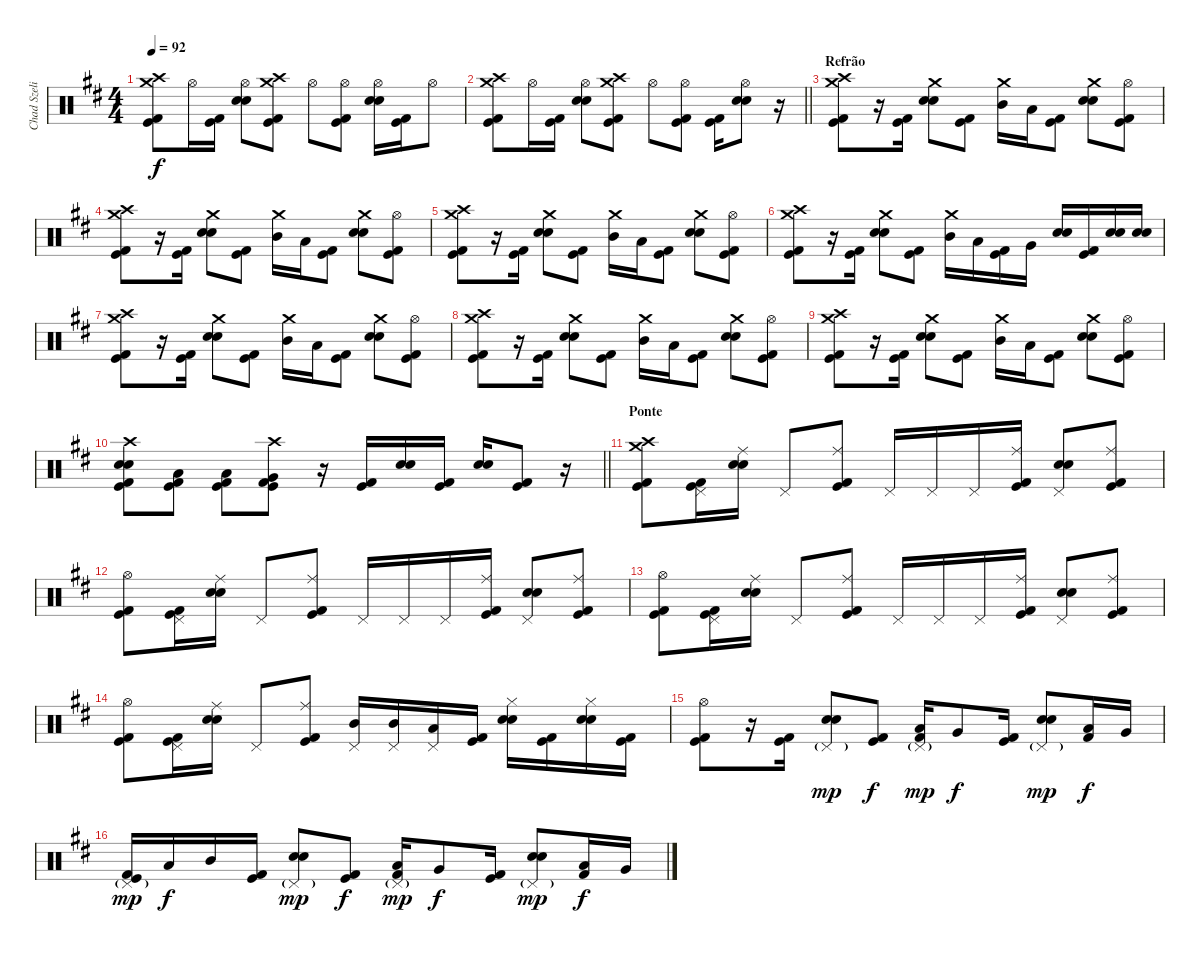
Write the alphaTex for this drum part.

\track ("Chad Szeliga" "Chad Szeli") {instrument percussion}
\staff {score}
\articulation defaults
\ts (4 4)
\tempo 92
\clef neutral
\ks d
("Crash high (hit)" "Kick (hit) 2" "Kick (hit)" "Crash medium (hit)").8{dy f} "Hi-Hat (open)".16 ("Kick (hit) 2" "Kick (hit)").16 ("Snare (hit) 2" "Snare (hit) 2" "Hi-Hat (open)").8 ("Crash high (hit)" "Kick (hit) 2" "Kick (hit)" "Crash medium (hit)").8 "Hi-Hat (open)".8 ("Kick (hit) 2" "Kick (hit)" "Hi-Hat (open)").8 ("Snare (hit) 2" "Snare (hit) 2" "Hi-Hat (open)").16 ("Kick (hit) 2" "Kick (hit)").16 "Hi-Hat (open)".8 |
\barLineRight lightlight
("Crash high (hit)" "Kick (hit) 2" "Kick (hit)" "Crash medium (hit)").8 "Hi-Hat (open)".16 ("Kick (hit) 2" "Kick (hit)").16 ("Snare (hit) 2" "Snare (hit) 2" "Hi-Hat (open)").8 ("Crash high (hit)" "Kick (hit) 2" "Kick (hit)" "Crash medium (hit)").8 "Hi-Hat (open)".8 ("Kick (hit) 2" "Kick (hit)" "Hi-Hat (open)").8 ("Kick (hit) 2" "Kick (hit)").16 ("Snare (hit) 2" "Snare (hit) 2" "Hi-Hat (open)").8 r.16 |
\section ("" "Refrão")
("Crash high (hit)" "Kick (hit) 2" "Kick (hit)" "Crash medium (hit)").8 r.16 ("Kick (hit) 2" "Kick (hit)").16{beam Down} ("Crash medium (hit)" "Snare (hit) 2" "Snare (hit) 2").8 ("Kick (hit) 2" "Kick (hit)").8 ("Crash medium (hit)" "Mid Tom (hit)").16 "Low Tom (hit)".16 ("Kick (hit) 2" "Kick (hit)").8 ("Crash medium (hit)" "Snare (hit) 2" "Snare (hit) 2").8 ("Kick (hit) 2" "Kick (hit)" "Hi-Hat (open)").8 |
("Crash high (hit)" "Kick (hit) 2" "Kick (hit)" "Crash medium (hit)").8 r.16 ("Kick (hit) 2" "Kick (hit)").16{beam Down} ("Crash medium (hit)" "Snare (hit) 2" "Snare (hit) 2").8 ("Kick (hit) 2" "Kick (hit)").8 ("Crash medium (hit)" "Mid Tom (hit)").16 "Low Tom (hit)".16 ("Kick (hit) 2" "Kick (hit)").8 ("Crash medium (hit)" "Snare (hit) 2" "Snare (hit) 2").8 ("Kick (hit) 2" "Kick (hit)" "Hi-Hat (open)").8 |
("Crash high (hit)" "Kick (hit) 2" "Kick (hit)" "Crash medium (hit)").8 r.16 ("Kick (hit) 2" "Kick (hit)").16{beam Down} ("Crash medium (hit)" "Snare (hit) 2" "Snare (hit) 2").8 ("Kick (hit) 2" "Kick (hit)").8 ("Crash medium (hit)" "Mid Tom (hit)").16 "Low Tom (hit)".16 ("Kick (hit) 2" "Kick (hit)").8 ("Crash medium (hit)" "Snare (hit) 2" "Snare (hit) 2").8 ("Kick (hit) 2" "Kick (hit)" "Hi-Hat (open)").8 |
("Crash high (hit)" "Kick (hit) 2" "Kick (hit)" "Crash medium (hit)").8 r.16 ("Kick (hit) 2" "Kick (hit)").16{beam Down} ("Crash medium (hit)" "Snare (hit) 2" "Snare (hit) 2").8 ("Kick (hit) 2" "Kick (hit)").8 ("Crash medium (hit)" "Mid Tom (hit)").16 "Low Tom (hit)".16 ("Kick (hit) 2" "Kick (hit)").16 "Very Low Tom (hit)".16 ("Snare (hit) 2" "Snare (hit) 2").16 ("Kick (hit) 2" "Kick (hit)").16 ("Snare (hit) 2" "Snare (hit) 2").16 ("Snare (hit) 2" "Snare (hit) 2").16 |
("Crash high (hit)" "Kick (hit) 2" "Kick (hit)" "Crash medium (hit)").8 r.16 ("Kick (hit) 2" "Kick (hit)").16{beam Down} ("Crash medium (hit)" "Snare (hit) 2" "Snare (hit) 2").8 ("Kick (hit) 2" "Kick (hit)").8 ("Crash medium (hit)" "Mid Tom (hit)").16 "Low Tom (hit)".16 ("Kick (hit) 2" "Kick (hit)").8 ("Crash medium (hit)" "Snare (hit) 2" "Snare (hit) 2").8 ("Kick (hit) 2" "Kick (hit)" "Hi-Hat (open)").8 |
("Crash high (hit)" "Kick (hit) 2" "Kick (hit)" "Crash medium (hit)").8 r.16 ("Kick (hit) 2" "Kick (hit)").16{beam Down} ("Crash medium (hit)" "Snare (hit) 2" "Snare (hit) 2").8 ("Kick (hit) 2" "Kick (hit)").8 ("Crash medium (hit)" "Mid Tom (hit)").16 "Low Tom (hit)".16 ("Kick (hit) 2" "Kick (hit)").8 ("Crash medium (hit)" "Snare (hit) 2" "Snare (hit) 2").8 ("Kick (hit) 2" "Kick (hit)" "Hi-Hat (open)").8 |
("Crash high (hit)" "Kick (hit) 2" "Kick (hit)" "Crash medium (hit)").8 r.16 ("Kick (hit) 2" "Kick (hit)").16{beam Down} ("Crash medium (hit)" "Snare (hit) 2" "Snare (hit) 2").8 ("Kick (hit) 2" "Kick (hit)").8 ("Crash medium (hit)" "Mid Tom (hit)").16 "Low Tom (hit)".16 ("Kick (hit) 2" "Kick (hit)").8 ("Crash medium (hit)" "Snare (hit) 2" "Snare (hit) 2").8 ("Kick (hit) 2" "Kick (hit)" "Hi-Hat (open)").8 |
\barLineRight lightlight
("Crash high (hit)" "Kick (hit) 2" "Kick (hit)" "Snare (hit) 2" "Snare (hit) 2").8 ("Kick (hit) 2" "Kick (hit)" "Low Tom (hit)").8 ("Kick (hit) 2" "Kick (hit)" "Low Tom (hit)").8 ("Crash high (hit)" "Kick (hit) 2" "Kick (hit)" "Very Low Tom (hit)").8 r.16 ("Kick (hit) 2" "Kick (hit)").16 ("Snare (hit) 2" "Snare (hit) 2").16 ("Kick (hit) 2" "Kick (hit)").16 ("Snare (hit) 2" "Snare (hit) 2").16 ("Kick (hit) 2" "Kick (hit)").8 r.16 |
\section ("" "Ponte")
("Crash high (hit)" "Kick (hit) 2" "Kick (hit)" "Crash medium (hit)").8 ("Kick (hit) 2" "Kick (hit)" "Pedal Hi-Hat (hit)").16 ("Snare (hit) 2" "Snare (hit) 2" "Ride (middle)").16 "Pedal Hi-Hat (hit)".8 ("Kick (hit) 2" "Kick (hit)" "Ride (middle)").8 "Pedal Hi-Hat (hit)".16 "Pedal Hi-Hat (hit)".16 "Pedal Hi-Hat (hit)".16 ("Kick (hit) 2" "Kick (hit)" "Ride (middle)").16 ("Snare (hit) 2" "Snare (hit) 2" "Pedal Hi-Hat (hit)").8 ("Kick (hit) 2" "Kick (hit)" "Ride (middle)").8 |
("Kick (hit) 2" "Kick (hit)" "Hi-Hat (open)").8 ("Kick (hit) 2" "Kick (hit)" "Pedal Hi-Hat (hit)").16 ("Snare (hit) 2" "Snare (hit) 2" "Ride (middle)").16 "Pedal Hi-Hat (hit)".8 ("Kick (hit) 2" "Kick (hit)" "Ride (middle)").8 "Pedal Hi-Hat (hit)".16 "Pedal Hi-Hat (hit)".16 "Pedal Hi-Hat (hit)".16 ("Kick (hit) 2" "Kick (hit)" "Ride (middle)").16 ("Snare (hit) 2" "Snare (hit) 2" "Pedal Hi-Hat (hit)").8 ("Kick (hit) 2" "Kick (hit)" "Ride (middle)").8 |
("Kick (hit) 2" "Kick (hit)" "Hi-Hat (open)").8 ("Kick (hit) 2" "Kick (hit)" "Pedal Hi-Hat (hit)").16 ("Snare (hit) 2" "Snare (hit) 2" "Ride (middle)").16 "Pedal Hi-Hat (hit)".8 ("Kick (hit) 2" "Kick (hit)" "Ride (middle)").8 "Pedal Hi-Hat (hit)".16 "Pedal Hi-Hat (hit)".16 "Pedal Hi-Hat (hit)".16 ("Kick (hit) 2" "Kick (hit)" "Ride (middle)").16 ("Snare (hit) 2" "Snare (hit) 2" "Pedal Hi-Hat (hit)").8 ("Kick (hit) 2" "Kick (hit)" "Ride (middle)").8 |
("Kick (hit) 2" "Kick (hit)" "Hi-Hat (open)").8 ("Kick (hit) 2" "Kick (hit)" "Pedal Hi-Hat (hit)").16 ("Snare (hit) 2" "Snare (hit) 2" "Ride (middle)").16 "Pedal Hi-Hat (hit)".8 ("Kick (hit) 2" "Kick (hit)" "Ride (middle)").8 ("Mid Tom (hit)" "Pedal Hi-Hat (hit)").16 ("Mid Tom (hit)" "Pedal Hi-Hat (hit)").16 ("Low Tom (hit)" "Pedal Hi-Hat (hit)").16 ("Kick (hit) 2" "Kick (hit)").16 ("Snare (hit) 2" "Snare (hit) 2" "Hi-Hat (closed)").16 ("Kick (hit) 2" "Kick (hit)").16 ("Snare (hit) 2" "Snare (hit) 2" "Hi-Hat (closed)").16 ("Kick (hit) 2" "Kick (hit)").16 |
("Kick (hit) 2" "Kick (hit)" "Hi-Hat (open)").8 r.16 ("Kick (hit) 2" "Kick (hit)").16 ("Snare (hit) 2" "Snare (hit) 2" "Pedal Hi-Hat (hit)"{g}).8{dy mp} ("Kick (hit) 2" "Kick (hit)").8{dy f} ("Kick (hit) 2" "Low Tom (hit)" "Pedal Hi-Hat (hit)"{g}).16{dy mp} "Very Low Tom (hit)".8{dy f} ("Kick (hit) 2" "Kick (hit)").16 ("Snare (hit) 2" "Snare (hit) 2" "Pedal Hi-Hat (hit)"{g}).8{dy mp} ("Kick (hit) 2" "Low Tom (hit)").16{dy f} "Very Low Tom (hit)".16 |
("Kick (hit) 2" "Kick (hit)" "Pedal Hi-Hat (hit)"{g}).16{dy mp} "Low Tom (hit)".16{dy f} "Mid Tom (hit)".16 ("Kick (hit) 2" "Kick (hit)").16 ("Snare (hit) 2" "Snare (hit) 2" "Pedal Hi-Hat (hit)"{g}).8{dy mp} ("Kick (hit) 2" "Kick (hit)").8{dy f} ("Kick (hit) 2" "Low Tom (hit)" "Pedal Hi-Hat (hit)"{g}).16{dy mp} "Very Low Tom (hit)".8{dy f} ("Kick (hit) 2" "Kick (hit)").16 ("Snare (hit) 2" "Snare (hit) 2" "Pedal Hi-Hat (hit)"{g}).8{dy mp} ("Kick (hit) 2" "Low Tom (hit)").16{dy f} "Very Low Tom (hit)".16
